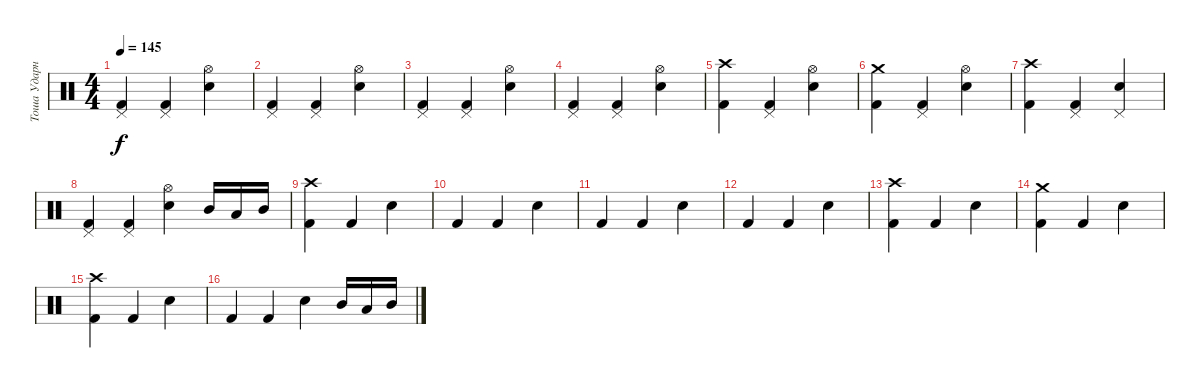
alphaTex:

\track ("Тоша Ударные" "Тоша Ударн") {instrument percussion}
\staff {score}
\articulation defaults
\ts (4 4)
\tempo 145
\clef neutral
\ks c
("Kick (hit) 2" "Pedal Hi-Hat (hit)").4{dy f} ("Kick (hit) 2" "Pedal Hi-Hat (hit)").4 ("Electric Snare (hit)" "Hi-Hat (open)").4 |
("Kick (hit) 2" "Pedal Hi-Hat (hit)").4 ("Kick (hit) 2" "Pedal Hi-Hat (hit)").4 ("Electric Snare (hit)" "Hi-Hat (open)").4 |
("Kick (hit) 2" "Pedal Hi-Hat (hit)").4 ("Kick (hit) 2" "Pedal Hi-Hat (hit)").4 ("Electric Snare (hit)" "Hi-Hat (open)").4 |
("Kick (hit) 2" "Pedal Hi-Hat (hit)").4 ("Kick (hit) 2" "Pedal Hi-Hat (hit)").4 ("Electric Snare (hit)" "Hi-Hat (open)").4 |
("Kick (hit) 2" "Crash high (hit)").4 ("Kick (hit) 2" "Pedal Hi-Hat (hit)").4 ("Electric Snare (hit)" "Hi-Hat (open)").4 |
("Kick (hit) 2" "Crash medium (hit)").4 ("Kick (hit) 2" "Pedal Hi-Hat (hit)").4 ("Electric Snare (hit)" "Hi-Hat (open)").4 |
("Kick (hit) 2" "Crash high (hit)").4 ("Kick (hit) 2" "Pedal Hi-Hat (hit)").4 ("Electric Snare (hit)" "Pedal Hi-Hat (hit)").4 |
("Kick (hit) 2" "Pedal Hi-Hat (hit)").4 ("Kick (hit) 2" "Pedal Hi-Hat (hit)").4 ("Electric Snare (hit)" "Hi-Hat (open)").4 "Mid Tom (hit)".16 "Low Tom (hit)".16 "Mid Tom (hit)".16 |
("Kick (hit) 2" "Crash high (hit)").4 "Kick (hit) 2".4 "Electric Snare (hit)".4 |
"Kick (hit) 2".4 "Kick (hit) 2".4 "Electric Snare (hit)".4 |
"Kick (hit) 2".4 "Kick (hit) 2".4 "Electric Snare (hit)".4 |
"Kick (hit) 2".4 "Kick (hit) 2".4 "Electric Snare (hit)".4 |
("Kick (hit) 2" "Crash high (hit)").4 "Kick (hit) 2".4 "Electric Snare (hit)".4 |
("Kick (hit) 2" "Crash medium (hit)").4 "Kick (hit) 2".4 "Electric Snare (hit)".4 |
("Kick (hit) 2" "Crash high (hit)").4 "Kick (hit) 2".4 "Electric Snare (hit)".4 |
"Kick (hit) 2".4 "Kick (hit) 2".4 "Electric Snare (hit)".4 "Mid Tom (hit)".16 "Low Tom (hit)".16 "Mid Tom (hit)".16
